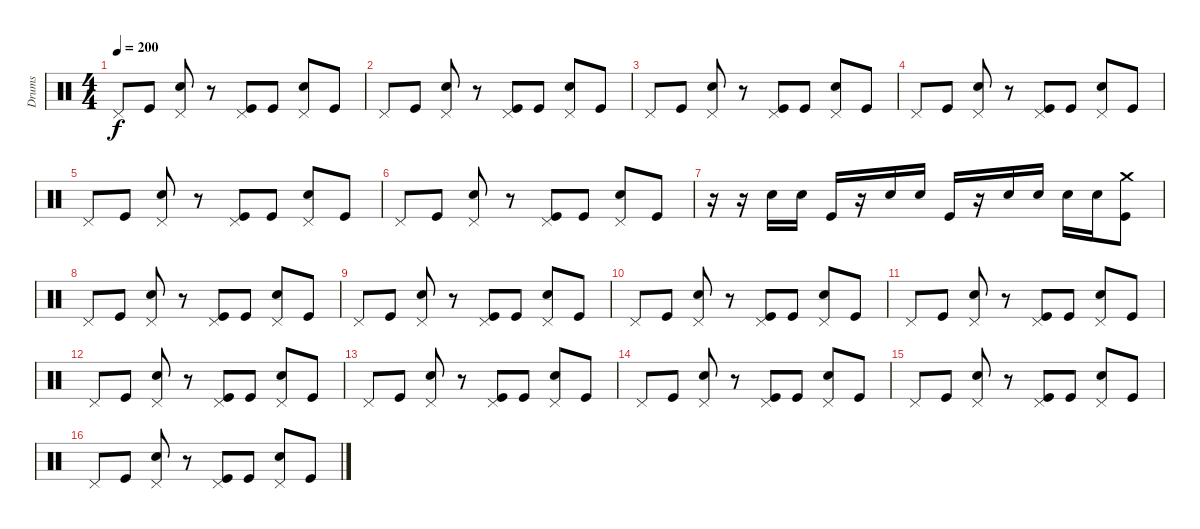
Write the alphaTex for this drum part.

\track ("Drums" "Drums") {instrument percussion}
\staff {score}
\articulation defaults
\ts (4 4)
\tempo 200
\clef neutral
\ks c "Pedal Hi-Hat (hit)".8{dy f} "Kick (hit)".8
("Pedal Hi-Hat (hit)" "Electric Snare (hit)").8 r.8 ("Pedal Hi-Hat (hit)" "Kick (hit)").8 "Kick (hit)".8 ("Pedal Hi-Hat (hit)" "Electric Snare (hit)").8 "Kick (hit)".8 |
"Pedal Hi-Hat (hit)".8 "Kick (hit)".8 ("Pedal Hi-Hat (hit)" "Electric Snare (hit)").8 r.8 ("Pedal Hi-Hat (hit)" "Kick (hit)").8 "Kick (hit)".8 ("Pedal Hi-Hat (hit)" "Electric Snare (hit)").8 "Kick (hit)".8 |
"Pedal Hi-Hat (hit)".8 "Kick (hit)".8 ("Pedal Hi-Hat (hit)" "Electric Snare (hit)").8 r.8 ("Pedal Hi-Hat (hit)" "Kick (hit)").8 "Kick (hit)".8 ("Pedal Hi-Hat (hit)" "Electric Snare (hit)").8 "Kick (hit)".8 |
"Pedal Hi-Hat (hit)".8 "Kick (hit)".8 ("Pedal Hi-Hat (hit)" "Electric Snare (hit)").8 r.8 ("Pedal Hi-Hat (hit)" "Kick (hit)").8 "Kick (hit)".8 ("Pedal Hi-Hat (hit)" "Electric Snare (hit)").8 "Kick (hit)".8 |
"Pedal Hi-Hat (hit)".8 "Kick (hit)".8 ("Pedal Hi-Hat (hit)" "Electric Snare (hit)").8 r.8 ("Pedal Hi-Hat (hit)" "Kick (hit)").8 "Kick (hit)".8 ("Pedal Hi-Hat (hit)" "Electric Snare (hit)").8 "Kick (hit)".8 |
"Pedal Hi-Hat (hit)".8 "Kick (hit)".8 ("Pedal Hi-Hat (hit)" "Electric Snare (hit)").8 r.8 ("Pedal Hi-Hat (hit)" "Kick (hit)").8 "Kick (hit)".8 ("Pedal Hi-Hat (hit)" "Electric Snare (hit)").8 "Kick (hit)".8 |
r.16 r.16 "Electric Snare (hit)".16 "Electric Snare (hit)".16 "Kick (hit)".16 r.16 "Electric Snare (hit)".16 "Electric Snare (hit)".16 "Kick (hit)".16 r.16 "Electric Snare (hit)".16 "Electric Snare (hit)".16 "Electric Snare (hit)".16 "Electric Snare (hit)".16 ("Crash medium (hit)" "Kick (hit)").8 |
"Pedal Hi-Hat (hit)".8 "Kick (hit)".8 ("Pedal Hi-Hat (hit)" "Electric Snare (hit)").8 r.8 ("Pedal Hi-Hat (hit)" "Kick (hit)").8 "Kick (hit)".8 ("Pedal Hi-Hat (hit)" "Electric Snare (hit)").8 "Kick (hit)".8 |
"Pedal Hi-Hat (hit)".8 "Kick (hit)".8 ("Pedal Hi-Hat (hit)" "Electric Snare (hit)").8 r.8 ("Pedal Hi-Hat (hit)" "Kick (hit)").8 "Kick (hit)".8 ("Pedal Hi-Hat (hit)" "Electric Snare (hit)").8 "Kick (hit)".8 |
"Pedal Hi-Hat (hit)".8 "Kick (hit)".8 ("Pedal Hi-Hat (hit)" "Electric Snare (hit)").8 r.8 ("Pedal Hi-Hat (hit)" "Kick (hit)").8 "Kick (hit)".8 ("Pedal Hi-Hat (hit)" "Electric Snare (hit)").8 "Kick (hit)".8 |
"Pedal Hi-Hat (hit)".8 "Kick (hit)".8 ("Pedal Hi-Hat (hit)" "Electric Snare (hit)").8 r.8 ("Pedal Hi-Hat (hit)" "Kick (hit)").8 "Kick (hit)".8 ("Pedal Hi-Hat (hit)" "Electric Snare (hit)").8 "Kick (hit)".8 |
"Pedal Hi-Hat (hit)".8 "Kick (hit)".8 ("Pedal Hi-Hat (hit)" "Electric Snare (hit)").8 r.8 ("Pedal Hi-Hat (hit)" "Kick (hit)").8 "Kick (hit)".8 ("Pedal Hi-Hat (hit)" "Electric Snare (hit)").8 "Kick (hit)".8 |
"Pedal Hi-Hat (hit)".8 "Kick (hit)".8 ("Pedal Hi-Hat (hit)" "Electric Snare (hit)").8 r.8 ("Pedal Hi-Hat (hit)" "Kick (hit)").8 "Kick (hit)".8 ("Pedal Hi-Hat (hit)" "Electric Snare (hit)").8 "Kick (hit)".8 |
"Pedal Hi-Hat (hit)".8 "Kick (hit)".8 ("Pedal Hi-Hat (hit)" "Electric Snare (hit)").8 r.8 ("Pedal Hi-Hat (hit)" "Kick (hit)").8 "Kick (hit)".8 ("Pedal Hi-Hat (hit)" "Electric Snare (hit)").8 "Kick (hit)".8 |
"Pedal Hi-Hat (hit)".8 "Kick (hit)".8 ("Pedal Hi-Hat (hit)" "Electric Snare (hit)").8 r.8 ("Pedal Hi-Hat (hit)" "Kick (hit)").8 "Kick (hit)".8 ("Pedal Hi-Hat (hit)" "Electric Snare (hit)").8 "Kick (hit)".8 |
"Pedal Hi-Hat (hit)".8 "Kick (hit)".8 ("Pedal Hi-Hat (hit)" "Electric Snare (hit)").8 r.8 ("Pedal Hi-Hat (hit)" "Kick (hit)").8 "Kick (hit)".8 ("Pedal Hi-Hat (hit)" "Electric Snare (hit)").8 "Kick (hit)".8
